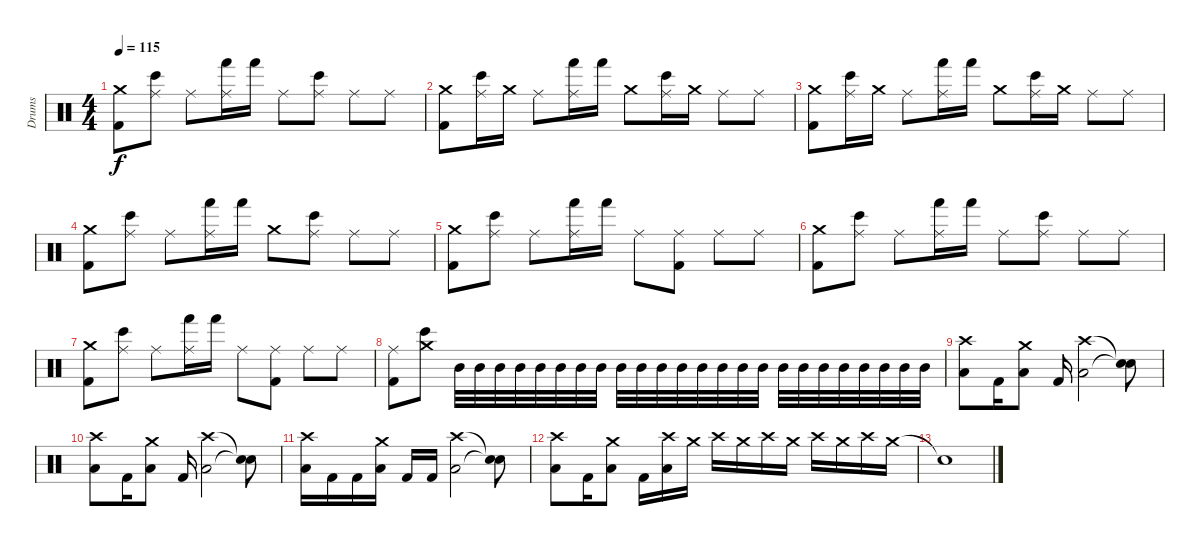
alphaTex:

\track ("Drums" "Drums") {instrument percussion}
\staff {score}
\articulation defaults
\ts (4 4)
\tempo 115
\clef neutral
\ks c
("Crash medium (hit)" "Kick (hit) 2").8{dy f} ("Ride (middle)" "Bongo High (hit)").8 "Ride (middle)".8 ("Ride (middle)" "Hand (hit)").16 "Hand (hit)".16 "Ride (middle)".8 ("Ride (middle)" "Bongo High (hit)").8 "Ride (middle)".8 "Ride (middle)".8 |
("Crash medium (hit)" "Kick (hit) 2").8 ("Ride (middle)" "Bongo High (hit)").16 "Crash medium (hit)".16 "Ride (middle)".8 ("Ride (middle)" "Hand (hit)").16 "Hand (hit)".16 "Crash medium (hit)".8 ("Ride (middle)" "Bongo High (hit)").16 "Crash medium (hit)".16 "Ride (middle)".8 "Ride (middle)".8 |
("Crash medium (hit)" "Kick (hit) 2").8 ("Ride (middle)" "Bongo High (hit)").16 "Crash medium (hit)".16 "Ride (middle)".8 ("Ride (middle)" "Hand (hit)").16 "Hand (hit)".16 "Crash medium (hit)".8 ("Ride (middle)" "Bongo High (hit)").16 "Crash medium (hit)".16 "Ride (middle)".8 "Ride (middle)".8 |
("Crash medium (hit)" "Kick (hit) 2").8 ("Ride (middle)" "Bongo High (hit)").8 "Ride (middle)".8 ("Ride (middle)" "Hand (hit)").16 "Hand (hit)".16 "Crash medium (hit)".8 ("Ride (middle)" "Bongo High (hit)").8 "Ride (middle)".8 "Ride (middle)".8 |
("Crash medium (hit)" "Kick (hit) 2").8 ("Ride (middle)" "Bongo High (hit)").8 "Ride (middle)".8 ("Ride (middle)" "Hand (hit)").16 "Hand (hit)".16 "Ride (middle)".8 ("Ride (middle)" "Kick (hit) 2").8 "Ride (middle)".8 "Ride (middle)".8 |
("Crash medium (hit)" "Kick (hit) 2").8 ("Ride (middle)" "Bongo High (hit)").8 "Ride (middle)".8 ("Ride (middle)" "Hand (hit)").16 "Hand (hit)".16 "Ride (middle)".8 ("Ride (middle)" "Bongo High (hit)").8 "Ride (middle)".8 "Ride (middle)".8 |
("Crash medium (hit)" "Kick (hit) 2").8 ("Ride (middle)" "Bongo High (hit)").8 "Ride (middle)".8 ("Ride (middle)" "Hand (hit)").16 "Hand (hit)".16 "Ride (middle)".8 ("Ride (middle)" "Kick (hit) 2").8 "Ride (middle)".8 "Ride (middle)".8 |
("Ride (middle)" "Kick (hit) 2").8 ("Crash medium (hit)" "Bongo High (hit)").8 "Mid Tom (hit)".32 "Mid Tom (hit)".32 "Mid Tom (hit)".32 "Mid Tom (hit)".32 "Mid Tom (hit)".32 "Mid Tom (hit)".32 "Mid Tom (hit)".32 "Mid Tom (hit)".32 "Mid Tom (hit)".32 "Mid Tom (hit)".32 "Mid Tom (hit)".32 "Mid Tom (hit)".32 "Mid Tom (hit)".32 "Mid Tom (hit)".32 "Mid Tom (hit)".32 "Mid Tom (hit)".32 "Mid Tom (hit)".32 "Mid Tom (hit)".32 "Mid Tom (hit)".32 "Mid Tom (hit)".32 "Mid Tom (hit)".32 "Mid Tom (hit)".32 "Mid Tom (hit)".32 "Mid Tom (hit)".32 |
("Crash high (hit)" "Low Tom (hit)").8 "Kick (hit) 2".16 ("Crash medium (hit)" "Low Tom (hit)").8 "Kick (hit) 2".16 ("Crash high (hit)" "Low Tom (hit)").2 ("Snare (hit)"{t} "Snare (hit)"{t}).8 |
("Crash high (hit)" "Low Tom (hit)").8 "Kick (hit) 2".16 ("Crash medium (hit)" "Low Tom (hit)").8 "Kick (hit) 2".16 ("Crash high (hit)" "Low Tom (hit)").2 ("Snare (hit)"{t} "Snare (hit)"{t}).8 |
("Crash high (hit)" "Low Tom (hit)").16 "Kick (hit) 2".16 "Kick (hit) 2".16 ("Crash medium (hit)" "Low Tom (hit)").16 "Kick (hit) 2".16 "Kick (hit) 2".16 ("Crash high (hit)" "Low Tom (hit)").2 ("Snare (hit)"{t} "Snare (hit)"{t}).8 |
("Crash high (hit)" "Low Tom (hit)").8 "Kick (hit) 2".16 ("Crash medium (hit)" "Low Tom (hit)").8 "Kick (hit) 2".16 ("Crash high (hit)" "Low Tom (hit)").16 "Crash medium (hit)".16 "Crash high (hit)".16 "Crash medium (hit)".16 "Crash high (hit)".16 "Crash medium (hit)".16 "Crash high (hit)".16 "Crash medium (hit)".16 "Crash high (hit)".16 "Crash medium (hit)".16 |
"Snare (hit)"{t}.1
